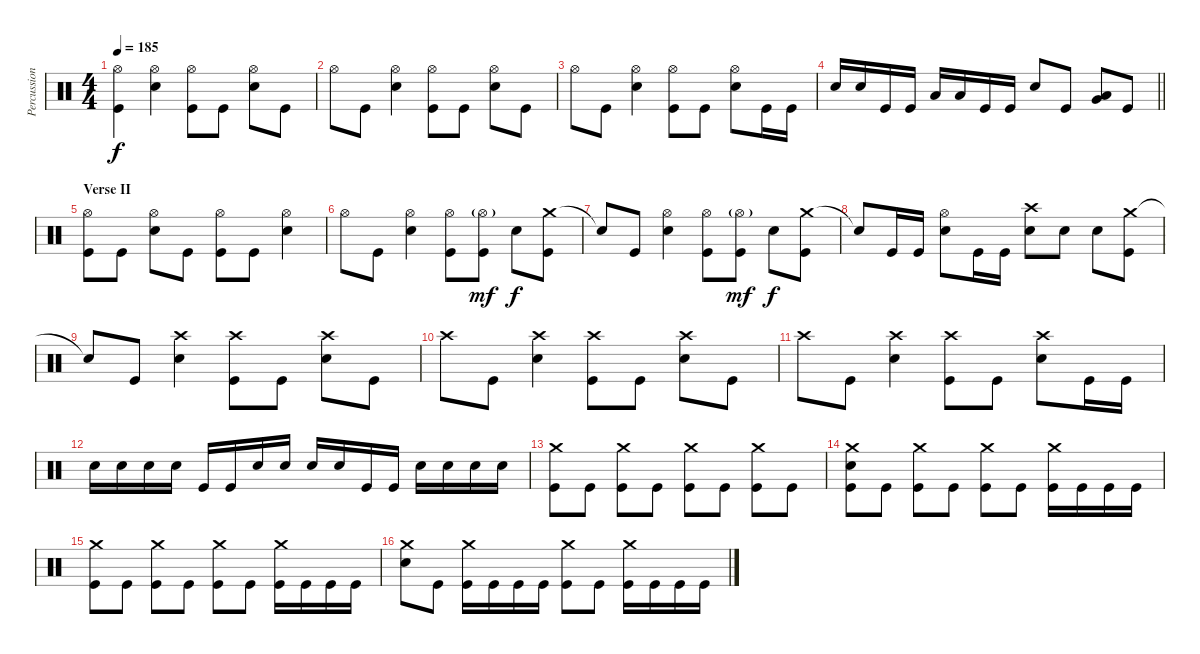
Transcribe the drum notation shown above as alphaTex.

\track ("Percussion" "Percussion") {instrument percussion}
\staff {score}
\articulation defaults
\ts (4 4)
\tempo 185
\clef neutral
\ks c
("Hi-Hat (open)" "Kick (hit)").4{dy f} ("Hi-Hat (open)" "Snare (hit) 2").4 ("Hi-Hat (open)" "Kick (hit)").8 "Kick (hit)".8 ("Hi-Hat (open)" "Snare (hit) 2").8 "Kick (hit)".8 |
"Hi-Hat (open)".8 "Kick (hit)".8 ("Hi-Hat (open)" "Snare (hit) 2").4 ("Hi-Hat (open)" "Kick (hit)").8 "Kick (hit)".8 ("Hi-Hat (open)" "Snare (hit) 2").8 "Kick (hit)".8 |
"Hi-Hat (open)".8 "Kick (hit)".8 ("Hi-Hat (open)" "Snare (hit) 2").4 ("Hi-Hat (open)" "Kick (hit)").8 "Kick (hit)".8 ("Hi-Hat (open)" "Snare (hit) 2").8 "Kick (hit)".16 "Kick (hit)".16 |
\barLineRight lightlight "Snare (hit) 2".16 "Snare (hit) 2".16 "Kick (hit)".16 "Kick (hit)".16 "Low Tom (hit)".16 "Low Tom (hit)".16 "Kick (hit)".16 "Kick (hit)".16 "Snare (hit) 2".8 "Kick (hit)".8
("Low Tom (hit)" "Very Low Tom (hit)").8 "Kick (hit)".8 |
\section ("" "Verse II")
("Hi-Hat (open)" "Kick (hit)").8 "Kick (hit)".8 ("Hi-Hat (open)" "Snare (hit) 2").8 "Kick (hit)".8 ("Hi-Hat (open)" "Kick (hit)").8 "Kick (hit)".8 ("Hi-Hat (open)" "Snare (hit) 2").4 |
"Hi-Hat (open)".8 "Kick (hit)".8 ("Hi-Hat (open)" "Snare (hit) 2").4 ("Hi-Hat (open)" "Kick (hit)").8 ("Hi-Hat (open)"{g} "Kick (hit)").8{dy mf} "Snare (hit) 2".8{dy f} ("Crash medium (hit)" "Kick (hit)").8 |
"Snare (hit)"{t}.8 "Kick (hit)".8 ("Hi-Hat (open)" "Snare (hit) 2").4 ("Hi-Hat (open)" "Kick (hit)").8 ("Hi-Hat (open)"{g} "Kick (hit)").8{dy mf} "Snare (hit) 2".8{dy f} ("Crash medium (hit)" "Kick (hit)").8 |
"Snare (hit)"{t}.8 "Kick (hit)".16 "Kick (hit)".16 ("Hi-Hat (open)" "Snare (hit) 2").8 "Kick (hit)".16 "Kick (hit)".16 ("Crash high (hit)" "Snare (hit) 2").8 "Snare (hit) 2".8 "Snare (hit) 2".8 ("Crash medium (hit)" "Kick (hit)").8 |
"Snare (hit)"{t}.8 "Kick (hit)".8 ("Crash high (hit)" "Snare (hit) 2").4 ("Crash high (hit)" "Kick (hit)").8 "Kick (hit)".8 ("Crash high (hit)" "Snare (hit) 2").8 "Kick (hit)".8 |
"Crash high (hit)".8 "Kick (hit)".8 ("Crash high (hit)" "Snare (hit) 2").4 ("Crash high (hit)" "Kick (hit)").8 "Kick (hit)".8 ("Crash high (hit)" "Snare (hit) 2").8 "Kick (hit)".8 |
"Crash high (hit)".8 "Kick (hit)".8 ("Crash high (hit)" "Snare (hit) 2").4 ("Crash high (hit)" "Kick (hit)").8 "Kick (hit)".8 ("Crash high (hit)" "Snare (hit) 2").8 "Kick (hit)".16 "Kick (hit)".16 |
"Snare (hit) 2".16 "Snare (hit) 2".16 "Snare (hit) 2".16 "Snare (hit) 2".16 "Kick (hit)".16 "Kick (hit)".16 "Snare (hit) 2".16 "Snare (hit) 2".16 "Snare (hit) 2".16 "Snare (hit) 2".16 "Kick (hit)".16 "Kick (hit)".16 "Snare (hit) 2".16 "Snare (hit) 2".16 "Snare (hit) 2".16 "Snare (hit) 2".16 |
("Crash medium (hit)" "Kick (hit)").8 "Kick (hit)".8 ("Crash medium (hit)" "Kick (hit)").8 "Kick (hit)".8 ("Crash medium (hit)" "Kick (hit)").8 "Kick (hit)".8 ("Crash medium (hit)" "Kick (hit)").8 "Kick (hit)".8 |
("Crash medium (hit)" "Snare (hit) 2" "Kick (hit)").8 "Kick (hit)".8 ("Crash medium (hit)" "Kick (hit)").8 "Kick (hit)".8 ("Crash medium (hit)" "Kick (hit)").8 "Kick (hit)".8 ("Crash medium (hit)" "Kick (hit)").16 "Kick (hit)".16 "Kick (hit)".16 "Kick (hit)".16 |
("Crash medium (hit)" "Kick (hit)").8 "Kick (hit)".8 ("Crash medium (hit)" "Kick (hit)").8 "Kick (hit)".8 ("Crash medium (hit)" "Kick (hit)").8 "Kick (hit)".8 ("Crash medium (hit)" "Kick (hit)").16 "Kick (hit)".16 "Kick (hit)".16 "Kick (hit)".16 |
("Crash medium (hit)" "Snare (hit) 2").8 "Kick (hit)".8 ("Crash medium (hit)" "Kick (hit)").16 "Kick (hit)".16 "Kick (hit)".16 "Kick (hit)".16 ("Crash medium (hit)" "Kick (hit)").8 "Kick (hit)".8 ("Crash medium (hit)" "Kick (hit)").16 "Kick (hit)".16 "Kick (hit)".16 "Kick (hit)".16
